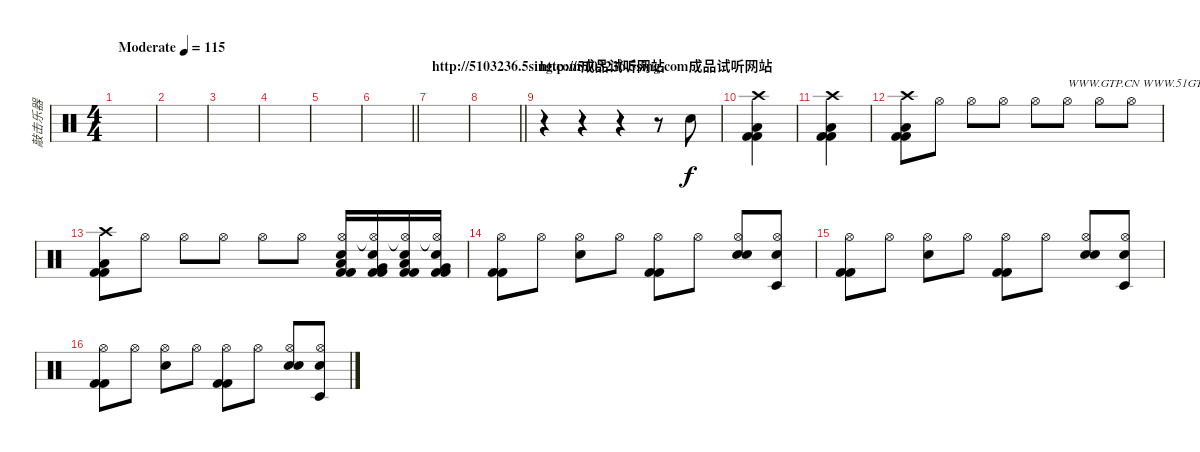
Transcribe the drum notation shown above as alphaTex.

\track ("敲击乐器" "敲击乐器") {instrument percussion}
\staff {score}
\articulation defaults
\ts (4 4)
\tempo (115 "Moderate")
\clef neutral
\ks c
|
|
|
|
|
\barLineRight lightlight
|
\section ("" "http://5103236.5sing.com成品试听网站")
|
\barLineRight lightlight
|
\section ("" "http://5103236.5sing.com成品试听网站")
r.4 r.4 r.4 r.8 "Snare (hit) 2".8 |
("Low Floor Tom (hit)" "Kick (hit) 2" "Crash high (hit)" "Kick (hit) 2").4 |
("Low Floor Tom (hit)" "Kick (hit) 2" "Crash high (hit)" "Kick (hit) 2").4 |
("Low Floor Tom (hit)" "Kick (hit) 2" "Crash high (hit)" "Kick (hit) 2").8 "Hi-Hat (open)".8 "Hi-Hat (open)".8 "Hi-Hat (open)".8 "Hi-Hat (open)".8 "Hi-Hat (open)".8{txt "WWW.GTP.CN WWW.51GTP.COM联合为您提供优秀的GTP!"} "Hi-Hat (open)".8 "Hi-Hat (open)".8 |
("Low Floor Tom (hit)" "Kick (hit) 2" "Crash high (hit)" "Kick (hit) 2").8 "Hi-Hat (open)".8 "Hi-Hat (open)".8 "Hi-Hat (open)".8 "Hi-Hat (open)".8 "Hi-Hat (open)".8 ("Hi-Hat (open)" "Kick (hit) 2" "Snare (hit) 2" "Low Tom (hit)" "Kick (hit) 2").16 ("Hi-Hat (open)"{t} "Kick (hit) 2" "Snare (hit) 2" "Very Low Tom (hit)" "Kick (hit) 2").16 ("Hi-Hat (open)"{t} "Kick (hit) 2" "Snare (hit) 2" "Low Tom (hit)" "Kick (hit) 2").16 ("Hi-Hat (open)"{t} "Kick (hit) 2" "Snare (hit) 2" "Very Low Tom (hit)" "Kick (hit) 2").16 |
("Hi-Hat (open)" "Kick (hit) 2" "Kick (hit) 2").8 "Hi-Hat (open)".8 ("Hi-Hat (open)" "Snare (hit) 2").8 "Hi-Hat (open)".8 ("Hi-Hat (open)" "Kick (hit) 2" "Kick (hit) 2").8 "Hi-Hat (open)".8 ("Hi-Hat (open)" "Snare (hit) 2" "Electric Snare (hit)").8 ("Hi-Hat (open)" "Timbale low (hit)" "Snare (hit) 2").8 |
("Hi-Hat (open)" "Kick (hit) 2" "Kick (hit) 2").8 "Hi-Hat (open)".8 ("Hi-Hat (open)" "Snare (hit) 2").8 "Hi-Hat (open)".8 ("Hi-Hat (open)" "Kick (hit) 2" "Kick (hit) 2").8 "Hi-Hat (open)".8 ("Hi-Hat (open)" "Snare (hit) 2" "Electric Snare (hit)").8 ("Hi-Hat (open)" "Timbale low (hit)" "Snare (hit) 2").8 |
("Hi-Hat (open)" "Kick (hit) 2" "Kick (hit) 2").8 "Hi-Hat (open)".8 ("Hi-Hat (open)" "Snare (hit) 2").8 "Hi-Hat (open)".8 ("Hi-Hat (open)" "Kick (hit) 2" "Kick (hit) 2").8 "Hi-Hat (open)".8 ("Hi-Hat (open)" "Snare (hit) 2" "Electric Snare (hit)").8 ("Hi-Hat (open)" "Timbale low (hit)" "Snare (hit) 2").8
